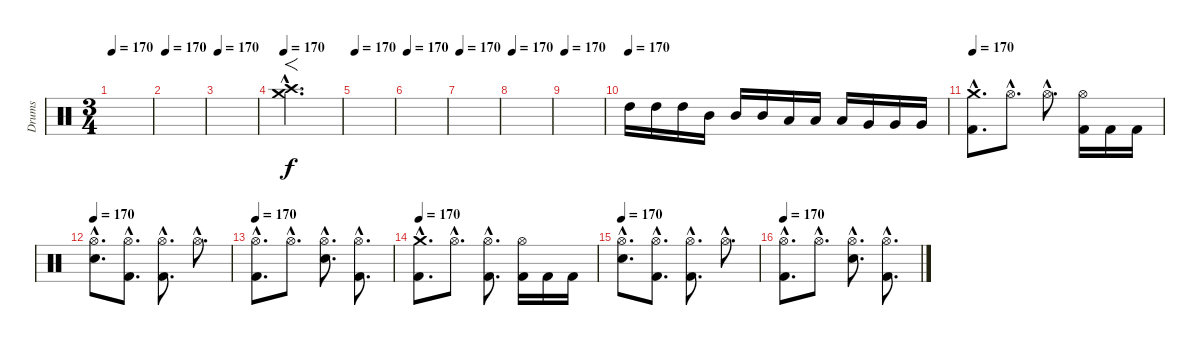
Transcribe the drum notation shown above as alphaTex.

\track ("Drums" "Drums") {instrument percussion}
\staff {score}
\articulation defaults
\ts (3 4)
\tempo 170
\clef neutral
\ks c
|
\tempo 170
|
\tempo 170
|
\tempo 170
("Crash medium (hit)"{hac} "Crash high (hit)"{hac}).2{f d} |
\tempo 170
|
\tempo 170
|
\tempo 170
|
\tempo 170
|
\tempo 170
|
\tempo (170)
"High Tom (hit)".16 "High Tom (hit)".16 "High Tom (hit)".16 "Mid Tom (hit)".16 "Mid Tom (hit)".16 "Mid Tom (hit)".16 "Low Tom (hit)".16 "Low Tom (hit)".16 "Low Tom (hit)".16 "Very Low Tom (hit)".16 "Very Low Tom (hit)".16 "Very Low Tom (hit)".16 |
\tempo 170
("Crash medium (hit)"{hac} "Kick (hit) 2"{hac}).8{d} "Hi-Hat (open)"{hac}.8{d} "Hi-Hat (open)"{hac}.8{d} ("Hi-Hat (open)" "Kick (hit) 2").16 "Kick (hit) 2".16 "Kick (hit) 2".16 |
\tempo 170
("Hi-Hat (open)"{hac} "Snare (hit) 2"{hac}).8{d} ("Hi-Hat (open)"{hac} "Kick (hit) 2"{hac}).8{d} ("Hi-Hat (open)"{hac} "Kick (hit) 2"{hac}).8{d} "Hi-Hat (open)"{hac}.8{d} |
\tempo 170
("Hi-Hat (open)"{hac} "Kick (hit) 2"{hac}).8{d} "Hi-Hat (open)"{hac}.8{d} ("Hi-Hat (open)"{hac} "Snare (hit) 2"{hac}).8{d} ("Hi-Hat (open)"{hac} "Kick (hit) 2"{hac}).8{d} |
\tempo 170
("Crash medium (hit)"{hac} "Kick (hit) 2"{hac}).8{d} "Hi-Hat (open)"{hac}.8{d} ("Hi-Hat (open)"{hac} "Kick (hit) 2"{hac}).8{d} ("Hi-Hat (open)" "Kick (hit) 2").16 "Kick (hit) 2".16 "Kick (hit) 2".16 |
\tempo 170
("Hi-Hat (open)"{hac} "Snare (hit) 2"{hac}).8{d} ("Hi-Hat (open)"{hac} "Kick (hit) 2"{hac}).8{d} ("Hi-Hat (open)"{hac} "Kick (hit) 2"{hac}).8{d} "Hi-Hat (open)"{hac}.8{d} |
\tempo 170
("Hi-Hat (open)"{hac} "Kick (hit) 2"{hac}).8{d} "Hi-Hat (open)"{hac}.8{d} ("Hi-Hat (open)"{hac} "Snare (hit) 2"{hac}).8{d} ("Hi-Hat (open)"{hac} "Kick (hit) 2"{hac}).8{d}
